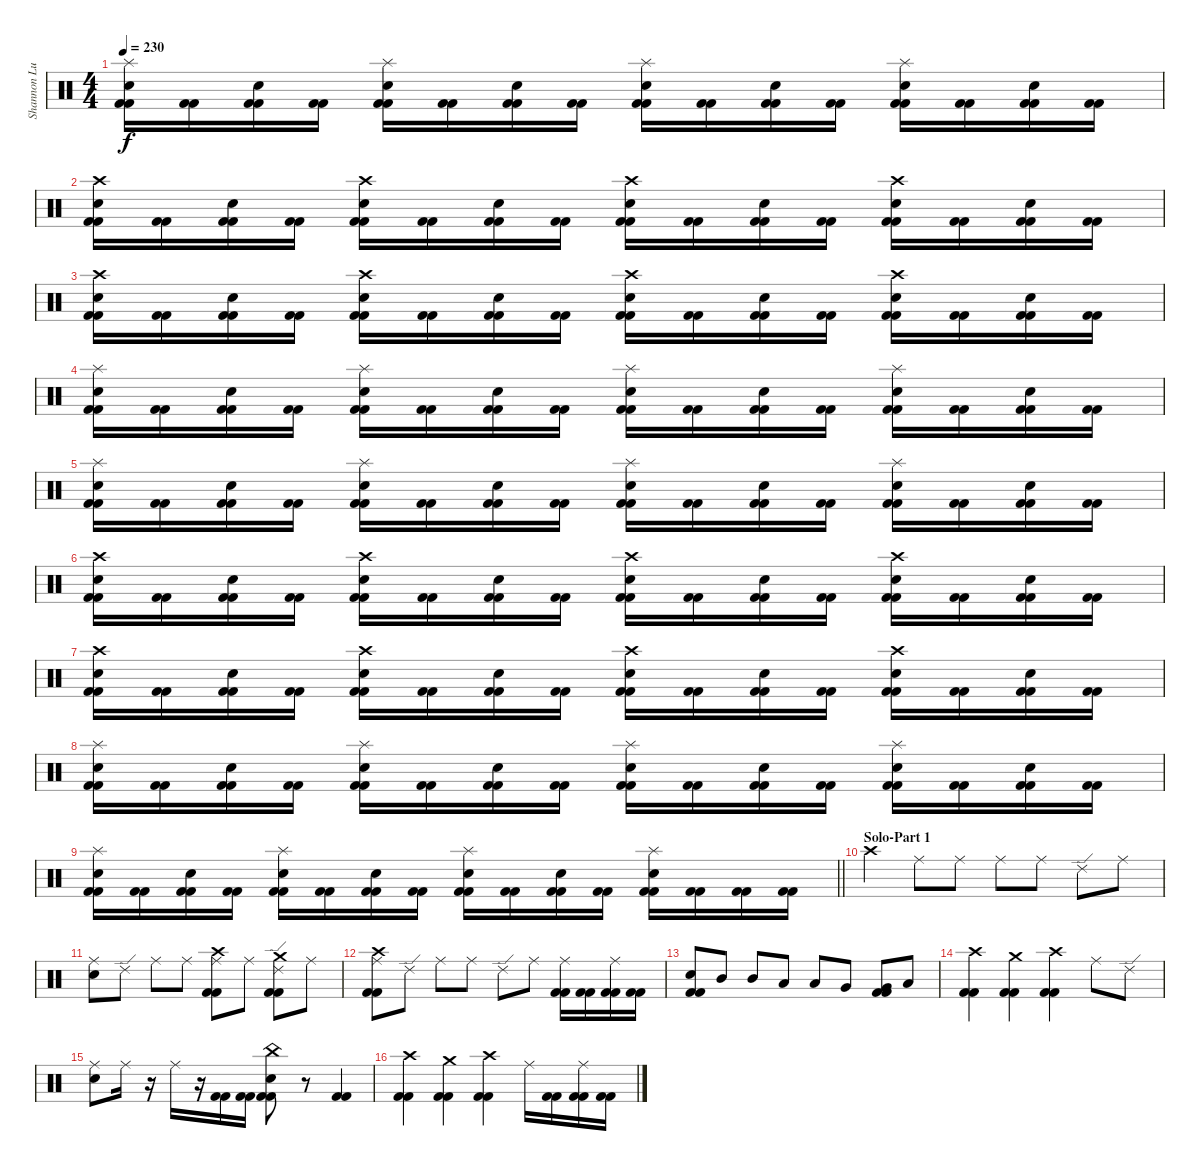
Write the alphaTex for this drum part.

\track ("Shannon Lucas" "Shannon Lu") {instrument percussion}
\staff {score}
\articulation defaults
\ts (4 4)
\tempo 230
\clef neutral
\ks c
("Splash (hit)" "Electric Snare (hit)" "Kick (hit) 2" "Kick (hit) 2").16{dy f} ("Kick (hit) 2" "Kick (hit) 2").16 ("Electric Snare (hit)" "Kick (hit) 2" "Kick (hit) 2").16 ("Kick (hit) 2" "Kick (hit) 2").16 ("Splash (hit)" "Electric Snare (hit)" "Kick (hit) 2" "Kick (hit) 2").16 ("Kick (hit) 2" "Kick (hit) 2").16 ("Electric Snare (hit)" "Kick (hit) 2" "Kick (hit) 2").16 ("Kick (hit) 2" "Kick (hit) 2").16 ("Splash (hit)" "Electric Snare (hit)" "Kick (hit) 2" "Kick (hit) 2").16 ("Kick (hit) 2" "Kick (hit) 2").16 ("Electric Snare (hit)" "Kick (hit) 2" "Kick (hit) 2").16 ("Kick (hit) 2" "Kick (hit) 2").16 ("Splash (hit)" "Electric Snare (hit)" "Kick (hit) 2" "Kick (hit) 2").16 ("Kick (hit) 2" "Kick (hit) 2").16 ("Electric Snare (hit)" "Kick (hit) 2" "Kick (hit) 2").16 ("Kick (hit) 2" "Kick (hit) 2").16 |
("Crash high (hit)" "Electric Snare (hit)" "Kick (hit) 2" "Kick (hit) 2").16 ("Kick (hit) 2" "Kick (hit) 2").16 ("Electric Snare (hit)" "Kick (hit) 2" "Kick (hit) 2").16 ("Kick (hit) 2" "Kick (hit) 2").16 ("Crash high (hit)" "Electric Snare (hit)" "Kick (hit) 2" "Kick (hit) 2").16 ("Kick (hit) 2" "Kick (hit) 2").16 ("Electric Snare (hit)" "Kick (hit) 2" "Kick (hit) 2").16 ("Kick (hit) 2" "Kick (hit) 2").16 ("Crash high (hit)" "Electric Snare (hit)" "Kick (hit) 2" "Kick (hit) 2").16 ("Kick (hit) 2" "Kick (hit) 2").16 ("Electric Snare (hit)" "Kick (hit) 2" "Kick (hit) 2").16 ("Kick (hit) 2" "Kick (hit) 2").16 ("Crash high (hit)" "Electric Snare (hit)" "Kick (hit) 2" "Kick (hit) 2").16 ("Kick (hit) 2" "Kick (hit) 2").16 ("Electric Snare (hit)" "Kick (hit) 2" "Kick (hit) 2").16 ("Kick (hit) 2" "Kick (hit) 2").16 |
("Crash high (hit)" "Electric Snare (hit)" "Kick (hit) 2" "Kick (hit) 2").16 ("Kick (hit) 2" "Kick (hit) 2").16 ("Electric Snare (hit)" "Kick (hit) 2" "Kick (hit) 2").16 ("Kick (hit) 2" "Kick (hit) 2").16 ("Crash high (hit)" "Electric Snare (hit)" "Kick (hit) 2" "Kick (hit) 2").16 ("Kick (hit) 2" "Kick (hit) 2").16 ("Electric Snare (hit)" "Kick (hit) 2" "Kick (hit) 2").16 ("Kick (hit) 2" "Kick (hit) 2").16 ("Crash high (hit)" "Electric Snare (hit)" "Kick (hit) 2" "Kick (hit) 2").16 ("Kick (hit) 2" "Kick (hit) 2").16 ("Electric Snare (hit)" "Kick (hit) 2" "Kick (hit) 2").16 ("Kick (hit) 2" "Kick (hit) 2").16 ("Crash high (hit)" "Electric Snare (hit)" "Kick (hit) 2" "Kick (hit) 2").16 ("Kick (hit) 2" "Kick (hit) 2").16 ("Electric Snare (hit)" "Kick (hit) 2" "Kick (hit) 2").16 ("Kick (hit) 2" "Kick (hit) 2").16 |
("Splash (hit)" "Electric Snare (hit)" "Kick (hit) 2" "Kick (hit) 2").16 ("Kick (hit) 2" "Kick (hit) 2").16 ("Electric Snare (hit)" "Kick (hit) 2" "Kick (hit) 2").16 ("Kick (hit) 2" "Kick (hit) 2").16 ("Splash (hit)" "Electric Snare (hit)" "Kick (hit) 2" "Kick (hit) 2").16 ("Kick (hit) 2" "Kick (hit) 2").16 ("Electric Snare (hit)" "Kick (hit) 2" "Kick (hit) 2").16 ("Kick (hit) 2" "Kick (hit) 2").16 ("Splash (hit)" "Electric Snare (hit)" "Kick (hit) 2" "Kick (hit) 2").16 ("Kick (hit) 2" "Kick (hit) 2").16 ("Electric Snare (hit)" "Kick (hit) 2" "Kick (hit) 2").16 ("Kick (hit) 2" "Kick (hit) 2").16 ("Splash (hit)" "Electric Snare (hit)" "Kick (hit) 2" "Kick (hit) 2").16 ("Kick (hit) 2" "Kick (hit) 2").16 ("Electric Snare (hit)" "Kick (hit) 2" "Kick (hit) 2").16 ("Kick (hit) 2" "Kick (hit) 2").16 |
("Splash (hit)" "Electric Snare (hit)" "Kick (hit) 2" "Kick (hit) 2").16 ("Kick (hit) 2" "Kick (hit) 2").16 ("Electric Snare (hit)" "Kick (hit) 2" "Kick (hit) 2").16 ("Kick (hit) 2" "Kick (hit) 2").16 ("Splash (hit)" "Electric Snare (hit)" "Kick (hit) 2" "Kick (hit) 2").16 ("Kick (hit) 2" "Kick (hit) 2").16 ("Electric Snare (hit)" "Kick (hit) 2" "Kick (hit) 2").16 ("Kick (hit) 2" "Kick (hit) 2").16 ("Splash (hit)" "Electric Snare (hit)" "Kick (hit) 2" "Kick (hit) 2").16 ("Kick (hit) 2" "Kick (hit) 2").16 ("Electric Snare (hit)" "Kick (hit) 2" "Kick (hit) 2").16 ("Kick (hit) 2" "Kick (hit) 2").16 ("Splash (hit)" "Electric Snare (hit)" "Kick (hit) 2" "Kick (hit) 2").16 ("Kick (hit) 2" "Kick (hit) 2").16 ("Electric Snare (hit)" "Kick (hit) 2" "Kick (hit) 2").16 ("Kick (hit) 2" "Kick (hit) 2").16 |
("Crash high (hit)" "Electric Snare (hit)" "Kick (hit) 2" "Kick (hit) 2").16 ("Kick (hit) 2" "Kick (hit) 2").16 ("Electric Snare (hit)" "Kick (hit) 2" "Kick (hit) 2").16 ("Kick (hit) 2" "Kick (hit) 2").16 ("Crash high (hit)" "Electric Snare (hit)" "Kick (hit) 2" "Kick (hit) 2").16 ("Kick (hit) 2" "Kick (hit) 2").16 ("Electric Snare (hit)" "Kick (hit) 2" "Kick (hit) 2").16 ("Kick (hit) 2" "Kick (hit) 2").16 ("Crash high (hit)" "Electric Snare (hit)" "Kick (hit) 2" "Kick (hit) 2").16 ("Kick (hit) 2" "Kick (hit) 2").16 ("Electric Snare (hit)" "Kick (hit) 2" "Kick (hit) 2").16 ("Kick (hit) 2" "Kick (hit) 2").16 ("Crash high (hit)" "Electric Snare (hit)" "Kick (hit) 2" "Kick (hit) 2").16 ("Kick (hit) 2" "Kick (hit) 2").16 ("Electric Snare (hit)" "Kick (hit) 2" "Kick (hit) 2").16 ("Kick (hit) 2" "Kick (hit) 2").16 |
("Crash high (hit)" "Electric Snare (hit)" "Kick (hit) 2" "Kick (hit) 2").16 ("Kick (hit) 2" "Kick (hit) 2").16 ("Electric Snare (hit)" "Kick (hit) 2" "Kick (hit) 2").16 ("Kick (hit) 2" "Kick (hit) 2").16 ("Crash high (hit)" "Electric Snare (hit)" "Kick (hit) 2" "Kick (hit) 2").16 ("Kick (hit) 2" "Kick (hit) 2").16 ("Electric Snare (hit)" "Kick (hit) 2" "Kick (hit) 2").16 ("Kick (hit) 2" "Kick (hit) 2").16 ("Crash high (hit)" "Electric Snare (hit)" "Kick (hit) 2" "Kick (hit) 2").16 ("Kick (hit) 2" "Kick (hit) 2").16 ("Electric Snare (hit)" "Kick (hit) 2" "Kick (hit) 2").16 ("Kick (hit) 2" "Kick (hit) 2").16 ("Crash high (hit)" "Electric Snare (hit)" "Kick (hit) 2" "Kick (hit) 2").16 ("Kick (hit) 2" "Kick (hit) 2").16 ("Electric Snare (hit)" "Kick (hit) 2" "Kick (hit) 2").16 ("Kick (hit) 2" "Kick (hit) 2").16 |
("Splash (hit)" "Electric Snare (hit)" "Kick (hit) 2" "Kick (hit) 2").16 ("Kick (hit) 2" "Kick (hit) 2").16 ("Electric Snare (hit)" "Kick (hit) 2" "Kick (hit) 2").16 ("Kick (hit) 2" "Kick (hit) 2").16 ("Splash (hit)" "Electric Snare (hit)" "Kick (hit) 2" "Kick (hit) 2").16 ("Kick (hit) 2" "Kick (hit) 2").16 ("Electric Snare (hit)" "Kick (hit) 2" "Kick (hit) 2").16 ("Kick (hit) 2" "Kick (hit) 2").16 ("Splash (hit)" "Electric Snare (hit)" "Kick (hit) 2" "Kick (hit) 2").16 ("Kick (hit) 2" "Kick (hit) 2").16 ("Electric Snare (hit)" "Kick (hit) 2" "Kick (hit) 2").16 ("Kick (hit) 2" "Kick (hit) 2").16 ("Splash (hit)" "Electric Snare (hit)" "Kick (hit) 2" "Kick (hit) 2").16 ("Kick (hit) 2" "Kick (hit) 2").16 ("Electric Snare (hit)" "Kick (hit) 2" "Kick (hit) 2").16 ("Kick (hit) 2" "Kick (hit) 2").16 |
\barLineRight lightlight
("Splash (hit)" "Electric Snare (hit)" "Kick (hit) 2" "Kick (hit) 2").16 ("Kick (hit) 2" "Kick (hit) 2").16 ("Electric Snare (hit)" "Kick (hit) 2" "Kick (hit) 2").16 ("Kick (hit) 2" "Kick (hit) 2").16 ("Splash (hit)" "Electric Snare (hit)" "Kick (hit) 2" "Kick (hit) 2").16 ("Kick (hit) 2" "Kick (hit) 2").16 ("Electric Snare (hit)" "Kick (hit) 2" "Kick (hit) 2").16 ("Kick (hit) 2" "Kick (hit) 2").16 ("Splash (hit)" "Electric Snare (hit)" "Kick (hit) 2" "Kick (hit) 2").16 ("Kick (hit) 2" "Kick (hit) 2").16 ("Electric Snare (hit)" "Kick (hit) 2" "Kick (hit) 2").16 ("Kick (hit) 2" "Kick (hit) 2").16 ("Splash (hit)" "Electric Snare (hit)" "Kick (hit) 2" "Kick (hit) 2").16 ("Kick (hit) 2" "Kick (hit) 2").16 ("Kick (hit) 2" "Kick (hit) 2").16 ("Kick (hit) 2" "Kick (hit) 2").16 |
\section ("" "Solo-Part 1")
"Crash high (hit)".4 "Ride (middle)".8 "Ride (middle)".8 "Ride (middle)".8 "Ride (middle)".8 "Ride (edge) 2".8 "Ride (middle)".8 |
("Ride (middle)" "Electric Snare (hit)").8 "Ride (edge) 2".8 "Ride (middle)".8 "Ride (middle)".8 ("Crash high (hit)" "Ride (middle)" "Kick (hit) 2" "Kick (hit) 2").8 "Ride (middle)".8 ("Crash medium (hit)" "Ride (edge) 2" "Kick (hit) 2" "Kick (hit) 2").8 "Ride (middle)".8 |
("Crash high (hit)" "Ride (middle)" "Kick (hit) 2" "Kick (hit) 2").8 "Ride (edge) 2".8 "Ride (middle)".8 "Ride (middle)".8 "Ride (edge) 2".8 "Ride (middle)".8 ("Ride (middle)" "Kick (hit) 2" "Kick (hit) 2").16 ("Kick (hit) 2" "Kick (hit) 2").16 ("Ride (middle)" "Kick (hit) 2" "Kick (hit) 2").16 ("Kick (hit) 2" "Kick (hit) 2").16 |
("Electric Snare (hit)" "Kick (hit) 2" "Kick (hit) 2").8 "Mid Tom (hit)".8 "Mid Tom (hit)".8 "Low Tom (hit)".8 "Low Tom (hit)".8 "Very Low Tom (hit)".8 ("Very Low Tom (hit)" "Kick (hit) 2" "Kick (hit) 2").8 "Low Floor Tom (hit)".8 |
("Crash high (hit)" "Kick (hit) 2" "Kick (hit) 2").4 ("Crash medium (hit)" "Kick (hit) 2" "Kick (hit) 2").4 ("Crash high (hit)" "Kick (hit) 2" "Kick (hit) 2").4 "Ride (middle)".8 "Ride (edge) 2".8 |
("Ride (middle)" "Electric Snare (hit)").8 "Ride (middle)".16 r.16 "Ride (middle)".16 r.16 ("Kick (hit) 2" "Kick (hit) 2").16 ("Kick (hit) 2" "Kick (hit) 2").16 ("China (hit)" "Electric Snare (hit)" "Kick (hit) 2" "Kick (hit) 2").8 r.8 ("Kick (hit) 2" "Kick (hit) 2").4 |
("Crash high (hit)" "Kick (hit) 2" "Kick (hit) 2").4 ("Crash medium (hit)" "Kick (hit) 2" "Kick (hit) 2").4 ("Crash high (hit)" "Kick (hit) 2" "Kick (hit) 2").4 "Ride (middle)".16 ("Kick (hit) 2" "Kick (hit) 2").16 ("Ride (middle)" "Kick (hit) 2" "Kick (hit) 2").16 ("Kick (hit) 2" "Kick (hit) 2").16
